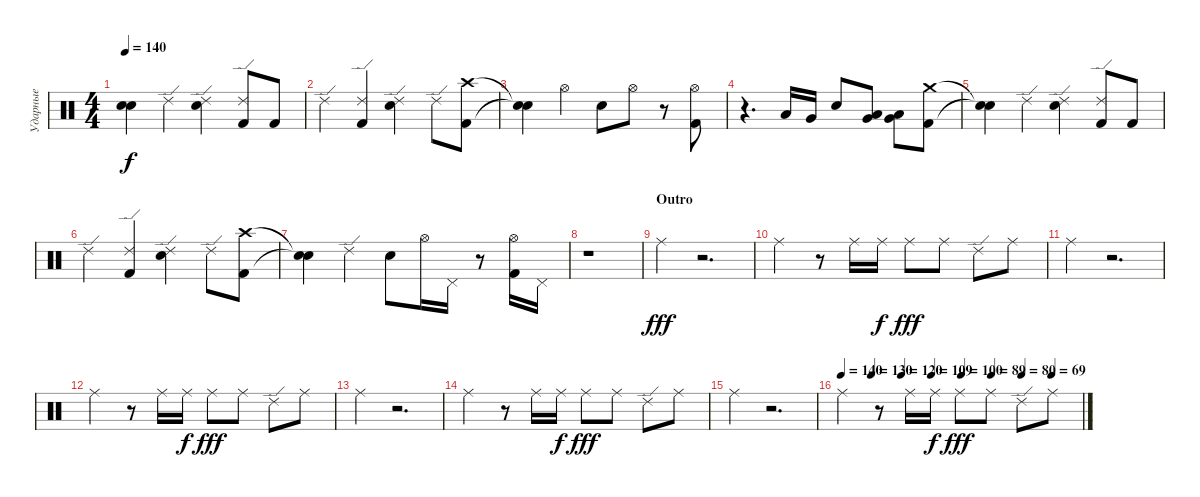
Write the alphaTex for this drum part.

\track ("Ударные" "Ударные") {instrument percussion}
\staff {score}
\articulation defaults
\ts (4 4)
\tempo 140
\clef neutral
\ks c
("Snare (hit)"{t} "Snare (hit)"{t}).4{dy f} "Ride (edge) 2".4 ("Snare (hit) 2" "Ride (edge) 2").4 ("Kick (hit) 2" "Ride (edge) 2").8 "Kick (hit) 2".8 |
"Ride (edge) 2".4 ("Kick (hit) 2" "Ride (edge) 2").4 ("Snare (hit) 2" "Ride (edge) 2").4 "Ride (edge) 2".8 ("Crash high (hit)" "Kick (hit) 2").8 |
("Snare (hit)"{t} "Snare (hit)"{t}).4 "Hi-Hat (open)".4 "Snare (hit) 2".8 "Hi-Hat (open)".8 r.8 ("Hi-Hat (open)" "Kick (hit) 2").8 |
r.4{d} "Low Tom (hit)".16 "Very Low Tom (hit)".16 "Snare (hit) 2".8 ("Very Low Tom (hit)" "Low Tom (hit)").8 ("Low Floor Tom (hit)" "Very Low Tom (hit)").8 ("Crash medium (hit)" "Kick (hit) 2").8 |
("Snare (hit)"{t} "Snare (hit)"{t}).4 "Ride (edge) 2".4 ("Snare (hit) 2" "Ride (edge) 2").4 ("Kick (hit) 2" "Ride (edge) 2").8 "Kick (hit) 2".8 |
"Ride (edge) 2".4 ("Kick (hit) 2" "Ride (edge) 2").4 ("Snare (hit) 2" "Ride (edge) 2").4 "Ride (edge) 2".8 ("Crash high (hit)" "Kick (hit) 2").8 |
("Snare (hit)"{t} "Snare (hit)"{t}).4 "Ride (edge) 2".4 "Snare (hit) 2".8 "Hi-Hat (open)".16 "Pedal Hi-Hat (hit)".16 r.8 ("Hi-Hat (open)" "Kick (hit) 2").16 "Pedal Hi-Hat (hit)".16 |
r.1 |
\section ("" "Outro")
"Ride (middle)".4{dy fff} r.2{d} |
"Ride (middle)".4 r.8 "Ride (middle)".16 "Ride (middle)".16{dy f} "Ride (middle)".8{dy fff} "Ride (middle)".8 "Ride (edge) 2".8 "Ride (middle)".8 |
"Ride (middle)".4 r.2{d} |
"Ride (middle)".4 r.8 "Ride (middle)".16 "Ride (middle)".16{dy f} "Ride (middle)".8{dy fff} "Ride (middle)".8 "Ride (edge) 2".8 "Ride (middle)".8 |
"Ride (middle)".4 r.2{d} |
"Ride (middle)".4 r.8 "Ride (middle)".16 "Ride (middle)".16{dy f} "Ride (middle)".8{dy fff} "Ride (middle)".8 "Ride (edge) 2".8 "Ride (middle)".8 |
"Ride (middle)".4 r.2{d} |
\tempo 140
\tempo (130 0.125)
\tempo (120 0.25)
\tempo (109 0.375)
\tempo (100 0.5)
\tempo (89 0.625)
\tempo (80 0.75)
\tempo (69 0.875)
"Ride (middle)".4 r.8 "Ride (middle)".16 "Ride (middle)".16{dy f} "Ride (middle)".8{dy fff} "Ride (middle)".8 "Ride (edge) 2".8 "Ride (middle)".8
